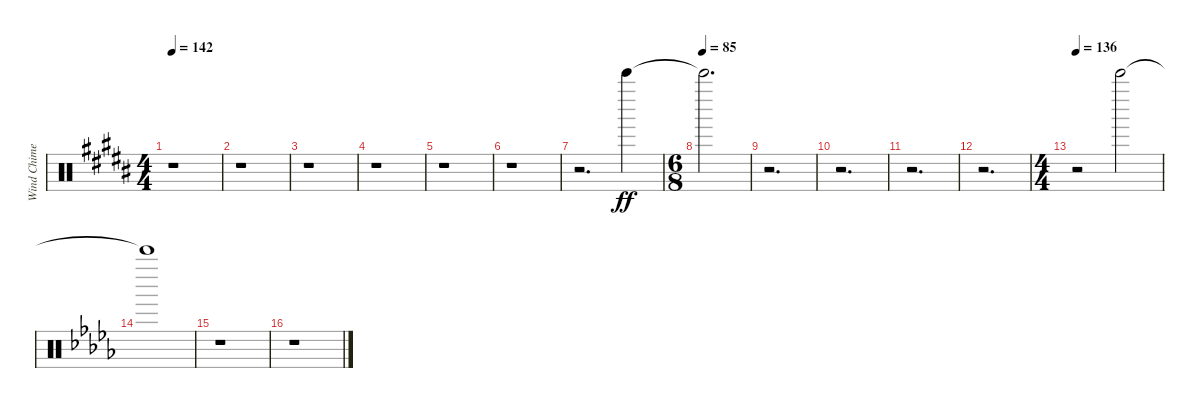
\track ("Wind Chimes" "Wind Chime") {instrument percussion}
\staff {score}
\articulation defaults
\ts (4 4)
\tempo 142
\clef neutral
\ks g#minor
r.1{dy ff} |
r.1 |
r.1 |
r.1 |
r.1 |
r.1 |
r.2{d} "Bell Tree (hit)".4 |
\ts (6 8)
\tempo (85)
"Bell Tree (hit)"{t}.2{d} |
r.2{d} |
r.2{d} |
r.2{d} |
r.2{d} |
\ts (4 4)
\tempo 136
r.2 "Bell Tree (hit)".2 |
\ks db "Bell Tree (hit)"{t}.1
|
r.1 |
r.1
